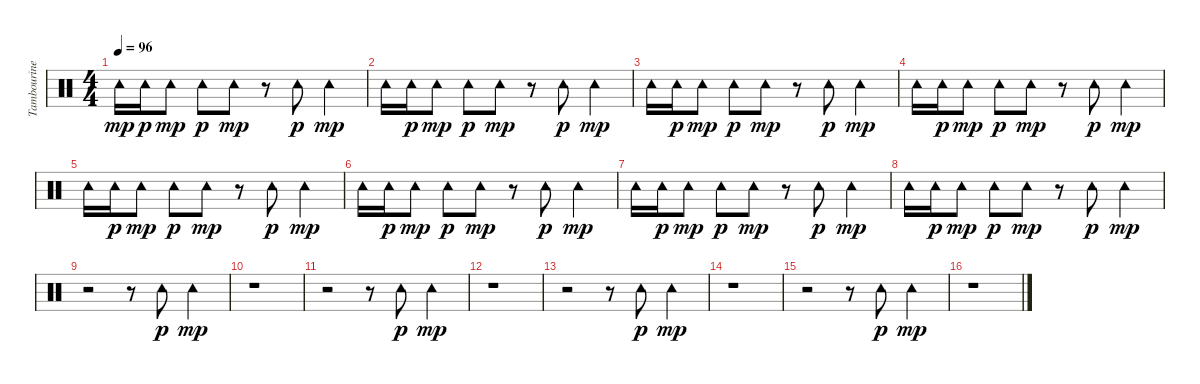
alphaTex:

\track ("Tambourine" "Tambourine") {instrument percussion}
\staff {score}
\articulation defaults
\ts (4 4)
\tempo 96
\clef neutral
\ks c "Tambourine (hit)".16{dy mp} "Tambourine (hit)".16{dy p} "Tambourine (hit)".8{dy mp} "Tambourine (hit)".8{dy p} "Tambourine (hit)".8{dy mp}
r.8 "Tambourine (hit)".8{dy p} "Tambourine (hit)".4{dy mp} |
"Tambourine (hit)".16 "Tambourine (hit)".16{dy p} "Tambourine (hit)".8{dy mp} "Tambourine (hit)".8{dy p} "Tambourine (hit)".8{dy mp} r.8 "Tambourine (hit)".8{dy p} "Tambourine (hit)".4{dy mp} |
"Tambourine (hit)".16 "Tambourine (hit)".16{dy p} "Tambourine (hit)".8{dy mp} "Tambourine (hit)".8{dy p} "Tambourine (hit)".8{dy mp} r.8 "Tambourine (hit)".8{dy p} "Tambourine (hit)".4{dy mp} |
"Tambourine (hit)".16 "Tambourine (hit)".16{dy p} "Tambourine (hit)".8{dy mp} "Tambourine (hit)".8{dy p} "Tambourine (hit)".8{dy mp} r.8 "Tambourine (hit)".8{dy p} "Tambourine (hit)".4{dy mp} |
"Tambourine (hit)".16 "Tambourine (hit)".16{dy p} "Tambourine (hit)".8{dy mp} "Tambourine (hit)".8{dy p} "Tambourine (hit)".8{dy mp} r.8 "Tambourine (hit)".8{dy p} "Tambourine (hit)".4{dy mp} |
"Tambourine (hit)".16 "Tambourine (hit)".16{dy p} "Tambourine (hit)".8{dy mp} "Tambourine (hit)".8{dy p} "Tambourine (hit)".8{dy mp} r.8 "Tambourine (hit)".8{dy p} "Tambourine (hit)".4{dy mp} |
"Tambourine (hit)".16 "Tambourine (hit)".16{dy p} "Tambourine (hit)".8{dy mp} "Tambourine (hit)".8{dy p} "Tambourine (hit)".8{dy mp} r.8 "Tambourine (hit)".8{dy p} "Tambourine (hit)".4{dy mp} |
"Tambourine (hit)".16 "Tambourine (hit)".16{dy p} "Tambourine (hit)".8{dy mp} "Tambourine (hit)".8{dy p} "Tambourine (hit)".8{dy mp} r.8 "Tambourine (hit)".8{dy p} "Tambourine (hit)".4{dy mp} |
r.2 r.8 "Tambourine (hit)".8{dy p} "Tambourine (hit)".4{dy mp} |
r.1 |
r.2 r.8 "Tambourine (hit)".8{dy p} "Tambourine (hit)".4{dy mp} |
r.1 |
r.2 r.8 "Tambourine (hit)".8{dy p} "Tambourine (hit)".4{dy mp} |
r.1 |
r.2 r.8 "Tambourine (hit)".8{dy p} "Tambourine (hit)".4{dy mp} |
r.1
